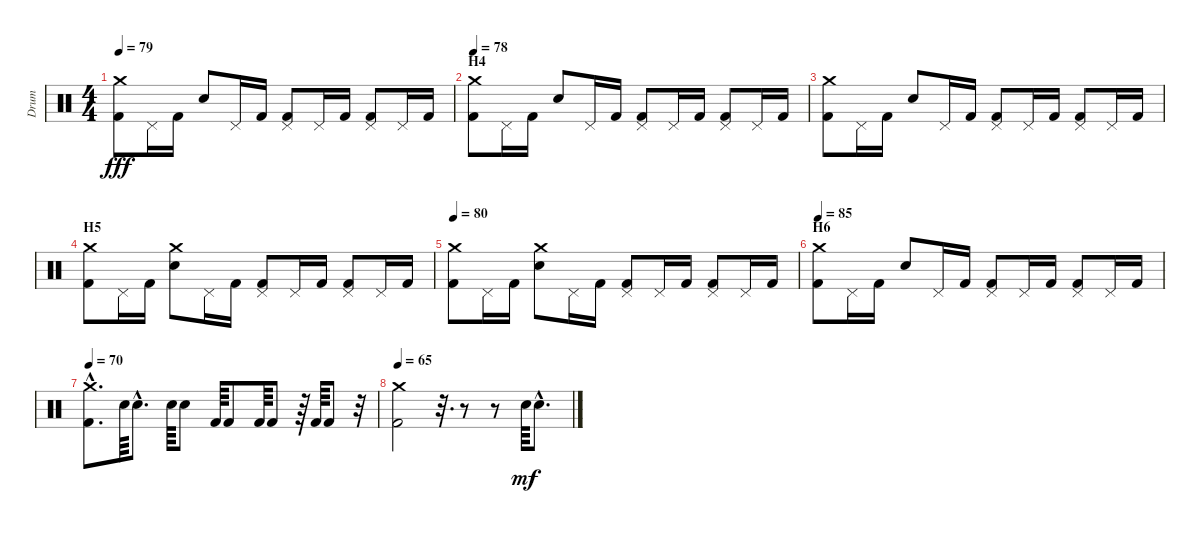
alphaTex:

\track ("Drum" "Drum") {instrument percussion}
\staff {score}
\articulation defaults
\ts (4 4)
\tempo 79
\clef neutral
\ks c
("Kick (hit) 2" "Crash medium (hit)").8{dy fff} "Pedal Hi-Hat (hit)".16 "Kick (hit) 2".16 "Electric Snare (hit)".8 "Pedal Hi-Hat (hit)".16 "Kick (hit) 2".16 ("Kick (hit) 2" "Pedal Hi-Hat (hit)").8 "Pedal Hi-Hat (hit)".16 "Kick (hit) 2".16 ("Kick (hit) 2" "Pedal Hi-Hat (hit)").8 "Pedal Hi-Hat (hit)".16 "Kick (hit) 2".16 |
\section ("" "H4")
\tempo 78
("Kick (hit) 2" "Crash medium (hit)").8 "Pedal Hi-Hat (hit)".16 "Kick (hit) 2".16 "Electric Snare (hit)".8 "Pedal Hi-Hat (hit)".16 "Kick (hit) 2".16 ("Kick (hit) 2" "Pedal Hi-Hat (hit)").8 "Pedal Hi-Hat (hit)".16 "Kick (hit) 2".16 ("Kick (hit) 2" "Pedal Hi-Hat (hit)").8 "Pedal Hi-Hat (hit)".16 "Kick (hit) 2".16 |
("Kick (hit) 2" "Crash medium (hit)").8 "Pedal Hi-Hat (hit)".16 "Kick (hit) 2".16 "Electric Snare (hit)".8 "Pedal Hi-Hat (hit)".16 "Kick (hit) 2".16 ("Kick (hit) 2" "Pedal Hi-Hat (hit)").8 "Pedal Hi-Hat (hit)".16 "Kick (hit) 2".16 ("Kick (hit) 2" "Pedal Hi-Hat (hit)").8 "Pedal Hi-Hat (hit)".16 "Kick (hit) 2".16 |
\section ("" "H5")
("Kick (hit) 2" "Crash medium (hit)").8 "Pedal Hi-Hat (hit)".16 "Kick (hit) 2".16 ("Electric Snare (hit)" "Crash medium (hit)").8 "Pedal Hi-Hat (hit)".16 "Kick (hit) 2".16 ("Kick (hit) 2" "Pedal Hi-Hat (hit)").8 "Pedal Hi-Hat (hit)".16 "Kick (hit) 2".16 ("Kick (hit) 2" "Pedal Hi-Hat (hit)").8 "Pedal Hi-Hat (hit)".16 "Kick (hit) 2".16 |
\tempo 80
("Kick (hit) 2" "Crash medium (hit)").8 "Pedal Hi-Hat (hit)".16 "Kick (hit) 2".16 ("Electric Snare (hit)" "Crash medium (hit)").8 "Pedal Hi-Hat (hit)".16 "Kick (hit) 2".16 ("Kick (hit) 2" "Pedal Hi-Hat (hit)").8 "Pedal Hi-Hat (hit)".16 "Kick (hit) 2".16 ("Kick (hit) 2" "Pedal Hi-Hat (hit)").8 "Pedal Hi-Hat (hit)".16 "Kick (hit) 2".16 |
\section ("" "H6")
\tempo 85
("Kick (hit) 2" "Crash medium (hit)").8 "Pedal Hi-Hat (hit)".16 "Kick (hit) 2".16 "Electric Snare (hit)".8 "Pedal Hi-Hat (hit)".16 "Kick (hit) 2".16 ("Kick (hit) 2" "Pedal Hi-Hat (hit)").8 "Pedal Hi-Hat (hit)".16 "Kick (hit) 2".16 ("Kick (hit) 2" "Pedal Hi-Hat (hit)").8 "Pedal Hi-Hat (hit)".16 "Kick (hit) 2".16 |
\tempo 70
("Kick (hit) 2"{hac} "Crash medium (hit)"{hac}).8{d} "Electric Snare (hit)".64 "Electric Snare (hit)"{hac}.8{d} "Electric Snare (hit)".64 "Electric Snare (hit)".8 "Kick (hit) 2".64 "Kick (hit) 2".8 "Kick (hit) 2".64 "Kick (hit) 2".8 r.64 "Kick (hit) 2".64 "Kick (hit) 2".8 r.32 |
\tempo 65
("Kick (hit) 2" "Crash medium (hit)").2 r.32{d} r.8 r.8 "Electric Snare (hit)".64{dy mf} "Electric Snare (hit)"{hac}.8{d}
